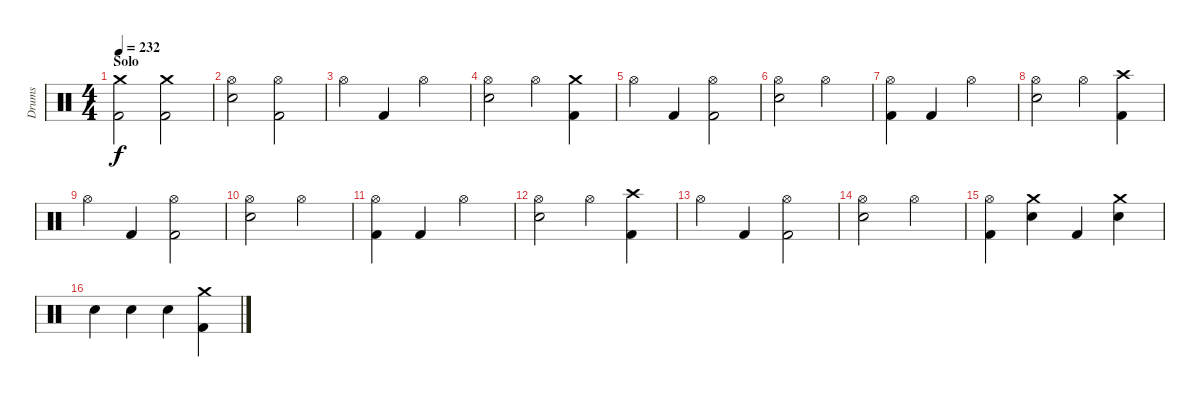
\track ("Drums" "Drums") {instrument percussion}
\staff {score}
\articulation defaults
\ts (4 4)
\section ("" "Solo")
\tempo 232
\clef neutral
\ks c
("Crash medium (hit)" "Kick (hit) 2").2{dy f} ("Crash medium (hit)" "Kick (hit) 2").2 |
("Hi-Hat (open)" "Electric Snare (hit)").2 ("Hi-Hat (open)" "Kick (hit) 2").2 |
"Hi-Hat (open)".4 "Kick (hit) 2".4 "Hi-Hat (open)".2 |
("Electric Snare (hit)" "Hi-Hat (open)").2 "Hi-Hat (open)".4 ("Kick (hit) 2" "Crash medium (hit)").4 |
"Hi-Hat (open)".4 "Kick (hit) 2".4 ("Kick (hit) 2" "Hi-Hat (open)").2 |
("Hi-Hat (open)" "Electric Snare (hit)").2 "Hi-Hat (open)".2 |
("Hi-Hat (open)" "Kick (hit) 2").4 "Kick (hit) 2".4 "Hi-Hat (open)".2 |
("Hi-Hat (open)" "Electric Snare (hit)").2 "Hi-Hat (open)".4 ("Crash high (hit)" "Kick (hit) 2").4 |
"Hi-Hat (open)".4 "Kick (hit) 2".4 ("Hi-Hat (open)" "Kick (hit) 2").2 |
("Hi-Hat (open)" "Electric Snare (hit)").2 "Hi-Hat (open)".2 |
("Hi-Hat (open)" "Kick (hit) 2").4 "Kick (hit) 2".4 "Hi-Hat (open)".2 |
("Hi-Hat (open)" "Electric Snare (hit)").2 "Hi-Hat (open)".4 ("Crash high (hit)" "Kick (hit) 2").4 |
"Hi-Hat (open)".4 "Kick (hit) 2".4 ("Hi-Hat (open)" "Kick (hit) 2").2 |
("Hi-Hat (open)" "Electric Snare (hit)").2 "Hi-Hat (open)".2 |
("Hi-Hat (open)" "Kick (hit) 2").4 ("Electric Snare (hit)" "Crash medium (hit)").4 "Kick (hit) 2".4 ("Crash medium (hit)" "Electric Snare (hit)").4 |
"Electric Snare (hit)".4 "Electric Snare (hit)".4 "Electric Snare (hit)".4 ("Crash medium (hit)" "Kick (hit) 2").4
